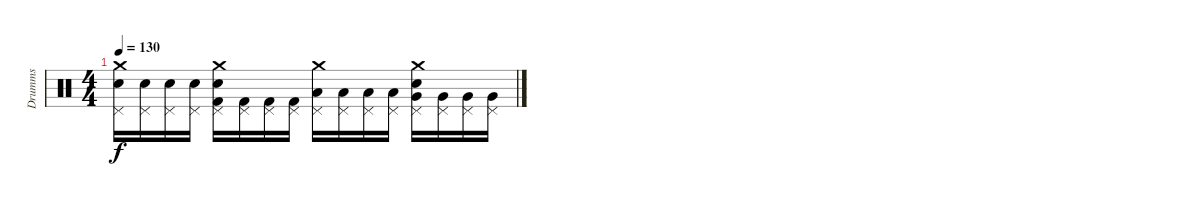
\track ("Drumms" "Drumms") {instrument percussion}
\staff {score}
\articulation defaults
\ts (4 4)
\tempo 130
\clef neutral
\ks c
("Crash medium (hit)" "Snare (hit) 2" "Pedal Hi-Hat (hit)").16{dy f volume 1 balance 0} ("Snare (hit) 2" "Pedal Hi-Hat (hit)").16 ("Snare (hit) 2" "Pedal Hi-Hat (hit)").16{balance 2} ("Snare (hit) 2" "Pedal Hi-Hat (hit)").16 ("Crash medium (hit)" "Electric Snare (hit)" "Kick (hit) 2" "Pedal Hi-Hat (hit)").16{volume 1 balance 4} ("Kick (hit) 2" "Pedal Hi-Hat (hit)").16 ("Kick (hit) 2" "Pedal Hi-Hat (hit)").16{balance 6} ("Kick (hit) 2" "Pedal Hi-Hat (hit)").16 ("Crash medium (hit)" "Low Floor Tom (hit)" "Pedal Hi-Hat (hit)").16{volume 0 balance 8} ("Low Floor Tom (hit)" "Pedal Hi-Hat (hit)").16 ("Low Floor Tom (hit)" "Pedal Hi-Hat (hit)").16{balance 10} ("Low Floor Tom (hit)" "Pedal Hi-Hat (hit)").16 ("Crash medium (hit)" "Electric Snare (hit)" "Very Low Tom (hit)" "Pedal Hi-Hat (hit)").16{volume 0 balance 12} ("Very Low Tom (hit)" "Pedal Hi-Hat (hit)").16 ("Very Low Tom (hit)" "Pedal Hi-Hat (hit)").16{balance 14} ("Very Low Tom (hit)" "Pedal Hi-Hat (hit)").16
